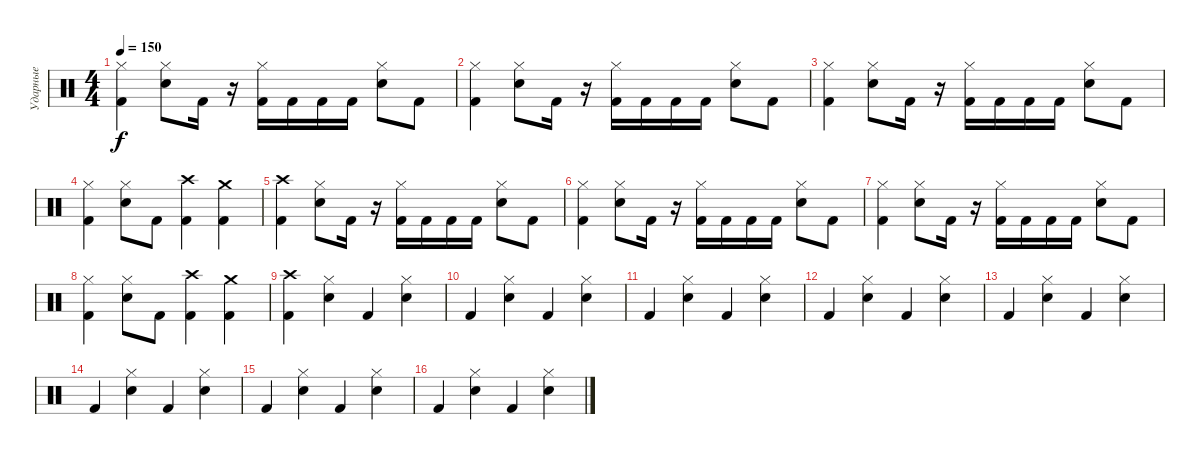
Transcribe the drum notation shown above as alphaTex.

\track ("Ударные" "Ударные") {instrument percussion}
\staff {score}
\articulation defaults
\ts (4 4)
\tempo 150
\clef neutral
\ks c
("Kick (hit) 2" "Hi-Hat (closed)").4{dy f} ("Electric Snare (hit)" "Hi-Hat (closed)").8 "Kick (hit) 2".16 r.16 ("Kick (hit) 2" "Hi-Hat (closed)").16 "Kick (hit) 2".16 "Kick (hit) 2".16 "Kick (hit) 2".16 ("Electric Snare (hit)" "Hi-Hat (closed)").8 "Kick (hit) 2".8 |
("Kick (hit) 2" "Hi-Hat (closed)").4 ("Electric Snare (hit)" "Hi-Hat (closed)").8 "Kick (hit) 2".16 r.16 ("Kick (hit) 2" "Hi-Hat (closed)").16 "Kick (hit) 2".16 "Kick (hit) 2".16 "Kick (hit) 2".16 ("Electric Snare (hit)" "Hi-Hat (closed)").8 "Kick (hit) 2".8 |
("Kick (hit) 2" "Hi-Hat (closed)").4 ("Electric Snare (hit)" "Hi-Hat (closed)").8 "Kick (hit) 2".16 r.16 ("Kick (hit) 2" "Hi-Hat (closed)").16 "Kick (hit) 2".16 "Kick (hit) 2".16 "Kick (hit) 2".16 ("Electric Snare (hit)" "Hi-Hat (closed)").8 "Kick (hit) 2".8 |
("Kick (hit) 2" "Hi-Hat (closed)").4 ("Electric Snare (hit)" "Hi-Hat (closed)").8 "Kick (hit) 2".8 ("Kick (hit) 2" "Crash high (hit)").4 ("Kick (hit) 2" "Crash medium (hit)").4 |
("Kick (hit) 2" "Crash high (hit)").4 ("Electric Snare (hit)" "Hi-Hat (closed)").8 "Kick (hit) 2".16 r.16 ("Kick (hit) 2" "Hi-Hat (closed)").16 "Kick (hit) 2".16 "Kick (hit) 2".16 "Kick (hit) 2".16 ("Electric Snare (hit)" "Hi-Hat (closed)").8 "Kick (hit) 2".8 |
("Kick (hit) 2" "Hi-Hat (closed)").4 ("Electric Snare (hit)" "Hi-Hat (closed)").8 "Kick (hit) 2".16 r.16 ("Kick (hit) 2" "Hi-Hat (closed)").16 "Kick (hit) 2".16 "Kick (hit) 2".16 "Kick (hit) 2".16 ("Electric Snare (hit)" "Hi-Hat (closed)").8 "Kick (hit) 2".8 |
("Kick (hit) 2" "Hi-Hat (closed)").4 ("Electric Snare (hit)" "Hi-Hat (closed)").8 "Kick (hit) 2".16 r.16 ("Kick (hit) 2" "Hi-Hat (closed)").16 "Kick (hit) 2".16 "Kick (hit) 2".16 "Kick (hit) 2".16 ("Electric Snare (hit)" "Hi-Hat (closed)").8 "Kick (hit) 2".8 |
("Kick (hit) 2" "Hi-Hat (closed)").4 ("Electric Snare (hit)" "Hi-Hat (closed)").8 "Kick (hit) 2".8 ("Kick (hit) 2" "Crash high (hit)").4 ("Kick (hit) 2" "Crash medium (hit)").4 |
("Kick (hit) 2" "Crash high (hit)").4 ("Electric Snare (hit)" "Hi-Hat (closed)").4 "Kick (hit) 2".4 ("Electric Snare (hit)" "Hi-Hat (closed)").4 |
"Kick (hit) 2".4 ("Electric Snare (hit)" "Hi-Hat (closed)").4 "Kick (hit) 2".4 ("Electric Snare (hit)" "Hi-Hat (closed)").4 |
"Kick (hit) 2".4 ("Electric Snare (hit)" "Hi-Hat (closed)").4 "Kick (hit) 2".4 ("Electric Snare (hit)" "Hi-Hat (closed)").4 |
"Kick (hit) 2".4 ("Electric Snare (hit)" "Hi-Hat (closed)").4 "Kick (hit) 2".4 ("Electric Snare (hit)" "Hi-Hat (closed)").4 |
"Kick (hit) 2".4 ("Electric Snare (hit)" "Hi-Hat (closed)").4 "Kick (hit) 2".4 ("Electric Snare (hit)" "Hi-Hat (closed)").4 |
"Kick (hit) 2".4 ("Electric Snare (hit)" "Hi-Hat (closed)").4 "Kick (hit) 2".4 ("Electric Snare (hit)" "Hi-Hat (closed)").4 |
"Kick (hit) 2".4 ("Electric Snare (hit)" "Hi-Hat (closed)").4 "Kick (hit) 2".4 ("Electric Snare (hit)" "Hi-Hat (closed)").4 |
"Kick (hit) 2".4 ("Electric Snare (hit)" "Hi-Hat (closed)").4 "Kick (hit) 2".4 ("Electric Snare (hit)" "Hi-Hat (closed)").4
